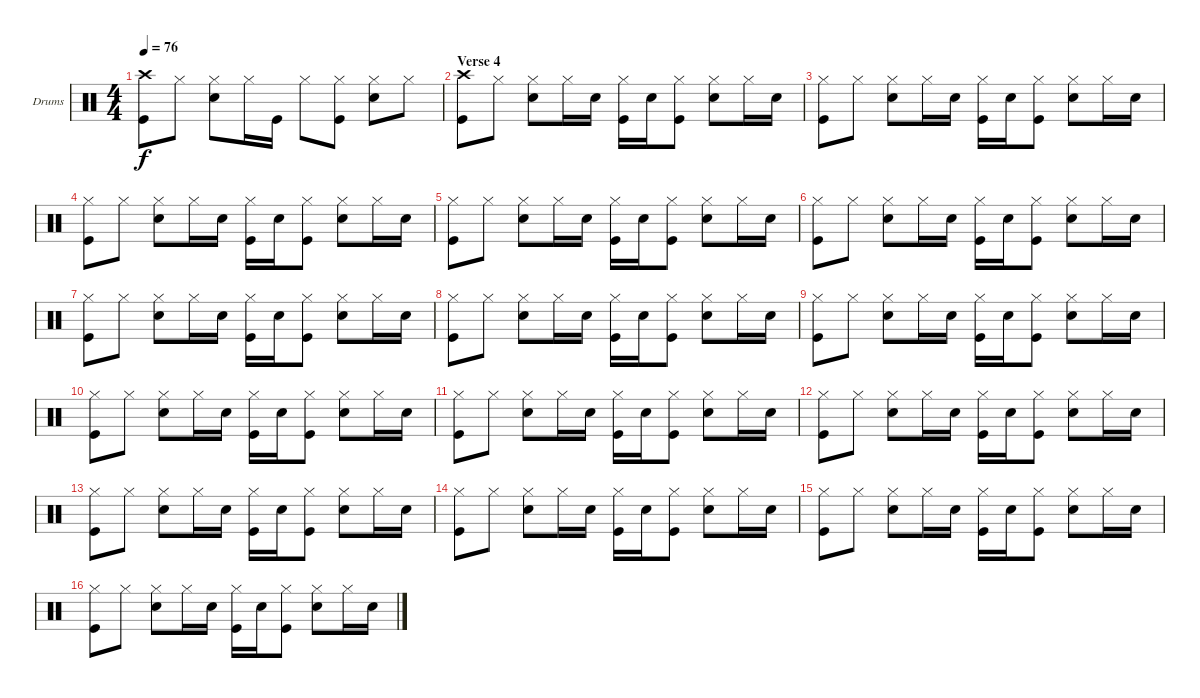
\bracketExtendMode groupsimilarinstruments
\firstSystemTrackNameOrientation horizontal
\otherSystemsTrackNameOrientation horizontal
\track ("Drums" "Drums") {instrument percussion}
\staff {score}
\articulation defaults
\ts (4 4)
\tempo 76
\clef neutral
\ks c
("Crash high (hit)" "Kick (hit)").8{dy f} "Hi-Hat (closed)".8 ("Hi-Hat (closed)" "Snare (hit) 2").8 "Hi-Hat (closed)".16 "Kick (hit)".16 "Hi-Hat (closed)".8 ("Hi-Hat (closed)" "Kick (hit)").8 ("Hi-Hat (closed)" "Snare (hit) 2").8 "Hi-Hat (closed)".8 |
\section ("" "Verse 4")
("Crash high (hit)" "Kick (hit)").8 "Hi-Hat (closed)".8 ("Hi-Hat (closed)" "Snare (hit) 2").8 "Hi-Hat (closed)".16 "Snare (hit) 2".16 ("Hi-Hat (closed)" "Kick (hit)").16 "Snare (hit) 2".16 ("Hi-Hat (closed)" "Kick (hit)").8 ("Hi-Hat (closed)" "Snare (hit) 2").8 "Hi-Hat (closed)".16 "Snare (hit) 2".16 |
("Hi-Hat (closed)" "Kick (hit)").8 "Hi-Hat (closed)".8 ("Hi-Hat (closed)" "Snare (hit) 2").8 "Hi-Hat (closed)".16 "Snare (hit) 2".16 ("Hi-Hat (closed)" "Kick (hit)").16 "Snare (hit) 2".16 ("Hi-Hat (closed)" "Kick (hit)").8 ("Hi-Hat (closed)" "Snare (hit) 2").8 "Hi-Hat (closed)".16 "Snare (hit) 2".16 |
("Hi-Hat (closed)" "Kick (hit)").8 "Hi-Hat (closed)".8 ("Hi-Hat (closed)" "Snare (hit) 2").8 "Hi-Hat (closed)".16 "Snare (hit) 2".16 ("Hi-Hat (closed)" "Kick (hit)").16 "Snare (hit) 2".16 ("Hi-Hat (closed)" "Kick (hit)").8 ("Hi-Hat (closed)" "Snare (hit) 2").8 "Hi-Hat (closed)".16 "Snare (hit) 2".16 |
("Hi-Hat (closed)" "Kick (hit)").8 "Hi-Hat (closed)".8 ("Hi-Hat (closed)" "Snare (hit) 2").8 "Hi-Hat (closed)".16 "Snare (hit) 2".16 ("Hi-Hat (closed)" "Kick (hit)").16 "Snare (hit) 2".16 ("Hi-Hat (closed)" "Kick (hit)").8 ("Hi-Hat (closed)" "Snare (hit) 2").8 "Hi-Hat (closed)".16 "Snare (hit) 2".16 |
("Hi-Hat (closed)" "Kick (hit)").8 "Hi-Hat (closed)".8 ("Hi-Hat (closed)" "Snare (hit) 2").8 "Hi-Hat (closed)".16 "Snare (hit) 2".16 ("Hi-Hat (closed)" "Kick (hit)").16 "Snare (hit) 2".16 ("Hi-Hat (closed)" "Kick (hit)").8 ("Hi-Hat (closed)" "Snare (hit) 2").8 "Hi-Hat (closed)".16 "Snare (hit) 2".16 |
("Hi-Hat (closed)" "Kick (hit)").8 "Hi-Hat (closed)".8 ("Hi-Hat (closed)" "Snare (hit) 2").8 "Hi-Hat (closed)".16 "Snare (hit) 2".16 ("Hi-Hat (closed)" "Kick (hit)").16 "Snare (hit) 2".16 ("Hi-Hat (closed)" "Kick (hit)").8 ("Hi-Hat (closed)" "Snare (hit) 2").8 "Hi-Hat (closed)".16 "Snare (hit) 2".16 |
("Hi-Hat (closed)" "Kick (hit)").8 "Hi-Hat (closed)".8 ("Hi-Hat (closed)" "Snare (hit) 2").8 "Hi-Hat (closed)".16 "Snare (hit) 2".16 ("Hi-Hat (closed)" "Kick (hit)").16 "Snare (hit) 2".16 ("Hi-Hat (closed)" "Kick (hit)").8 ("Hi-Hat (closed)" "Snare (hit) 2").8 "Hi-Hat (closed)".16 "Snare (hit) 2".16 |
("Hi-Hat (closed)" "Kick (hit)").8 "Hi-Hat (closed)".8 ("Hi-Hat (closed)" "Snare (hit) 2").8 "Hi-Hat (closed)".16 "Snare (hit) 2".16 ("Hi-Hat (closed)" "Kick (hit)").16 "Snare (hit) 2".16 ("Hi-Hat (closed)" "Kick (hit)").8 ("Hi-Hat (closed)" "Snare (hit) 2").8 "Hi-Hat (closed)".16 "Snare (hit) 2".16 |
("Hi-Hat (closed)" "Kick (hit)").8 "Hi-Hat (closed)".8 ("Hi-Hat (closed)" "Snare (hit) 2").8 "Hi-Hat (closed)".16 "Snare (hit) 2".16 ("Hi-Hat (closed)" "Kick (hit)").16 "Snare (hit) 2".16 ("Hi-Hat (closed)" "Kick (hit)").8 ("Hi-Hat (closed)" "Snare (hit) 2").8 "Hi-Hat (closed)".16 "Snare (hit) 2".16 |
("Hi-Hat (closed)" "Kick (hit)").8 "Hi-Hat (closed)".8 ("Hi-Hat (closed)" "Snare (hit) 2").8 "Hi-Hat (closed)".16 "Snare (hit) 2".16 ("Hi-Hat (closed)" "Kick (hit)").16 "Snare (hit) 2".16 ("Hi-Hat (closed)" "Kick (hit)").8 ("Hi-Hat (closed)" "Snare (hit) 2").8 "Hi-Hat (closed)".16 "Snare (hit) 2".16 |
("Hi-Hat (closed)" "Kick (hit)").8 "Hi-Hat (closed)".8 ("Hi-Hat (closed)" "Snare (hit) 2").8 "Hi-Hat (closed)".16 "Snare (hit) 2".16 ("Hi-Hat (closed)" "Kick (hit)").16 "Snare (hit) 2".16 ("Hi-Hat (closed)" "Kick (hit)").8 ("Hi-Hat (closed)" "Snare (hit) 2").8 "Hi-Hat (closed)".16 "Snare (hit) 2".16 |
("Hi-Hat (closed)" "Kick (hit)").8 "Hi-Hat (closed)".8 ("Hi-Hat (closed)" "Snare (hit) 2").8 "Hi-Hat (closed)".16 "Snare (hit) 2".16 ("Hi-Hat (closed)" "Kick (hit)").16 "Snare (hit) 2".16 ("Hi-Hat (closed)" "Kick (hit)").8 ("Hi-Hat (closed)" "Snare (hit) 2").8 "Hi-Hat (closed)".16 "Snare (hit) 2".16 |
("Hi-Hat (closed)" "Kick (hit)").8 "Hi-Hat (closed)".8 ("Hi-Hat (closed)" "Snare (hit) 2").8 "Hi-Hat (closed)".16 "Snare (hit) 2".16 ("Hi-Hat (closed)" "Kick (hit)").16 "Snare (hit) 2".16 ("Hi-Hat (closed)" "Kick (hit)").8 ("Hi-Hat (closed)" "Snare (hit) 2").8 "Hi-Hat (closed)".16 "Snare (hit) 2".16 |
("Hi-Hat (closed)" "Kick (hit)").8 "Hi-Hat (closed)".8 ("Hi-Hat (closed)" "Snare (hit) 2").8 "Hi-Hat (closed)".16 "Snare (hit) 2".16 ("Hi-Hat (closed)" "Kick (hit)").16 "Snare (hit) 2".16 ("Hi-Hat (closed)" "Kick (hit)").8 ("Hi-Hat (closed)" "Snare (hit) 2").8 "Hi-Hat (closed)".16 "Snare (hit) 2".16 |
("Hi-Hat (closed)" "Kick (hit)").8 "Hi-Hat (closed)".8 ("Hi-Hat (closed)" "Snare (hit) 2").8 "Hi-Hat (closed)".16 "Snare (hit) 2".16 ("Hi-Hat (closed)" "Kick (hit)").16 "Snare (hit) 2".16 ("Hi-Hat (closed)" "Kick (hit)").8 ("Hi-Hat (closed)" "Snare (hit) 2").8 "Hi-Hat (closed)".16 "Snare (hit) 2".16
